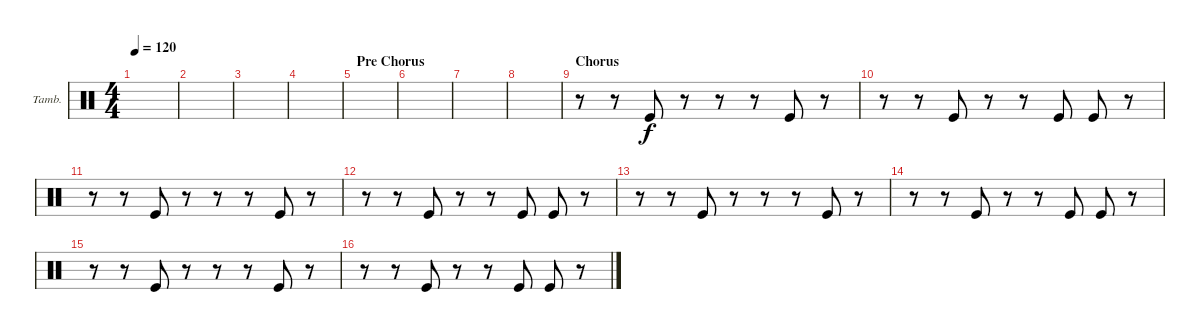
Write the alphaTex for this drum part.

\defaultSystemsLayout 4
\bracketExtendMode groupsimilarinstruments
\firstSystemTrackNameOrientation horizontal
\otherSystemsTrackNameOrientation horizontal
\track ("Tambourine" "Tamb.") {instrument percussion}
\staff {score}
\articulation defaults
\ts (4 4)
\tempo 120
\clef neutral
\scale
0.333333
\ks c
|
\scale
0.333333 |
\scale
0.333333 |
\scale
0.333333 |
\section ("" "Pre Chorus")
\scale
0.333333 |
\scale
0.333333 |
\scale
0.333333 |
\scale
0.333333 |
\section ("" "Chorus")
\scale
0.333333 r.8 r.8 "Kick (hit)".8 r.8 r.8 r.8 "Kick (hit)".8 r.8 |
\scale
0.333333 r.8 r.8 "Kick (hit)".8 r.8 r.8 "Kick (hit)".8 "Kick (hit)".8 r.8 |
\scale
0.333333 r.8 r.8 "Kick (hit)".8 r.8 r.8 r.8 "Kick (hit)".8 r.8 |
\scale
0.333333 r.8 r.8 "Kick (hit)".8 r.8 r.8 "Kick (hit)".8 "Kick (hit)".8 r.8 |
\scale
0.333333 r.8 r.8 "Kick (hit)".8 r.8 r.8 r.8 "Kick (hit)".8 r.8 |
\scale
0.333333 r.8 r.8 "Kick (hit)".8 r.8 r.8 "Kick (hit)".8 "Kick (hit)".8 r.8 |
\scale
0.333333 r.8 r.8 "Kick (hit)".8 r.8 r.8 r.8 "Kick (hit)".8 r.8 |
\scale
0.333333 r.8 r.8 "Kick (hit)".8 r.8 r.8 "Kick (hit)".8 "Kick (hit)".8 r.8
